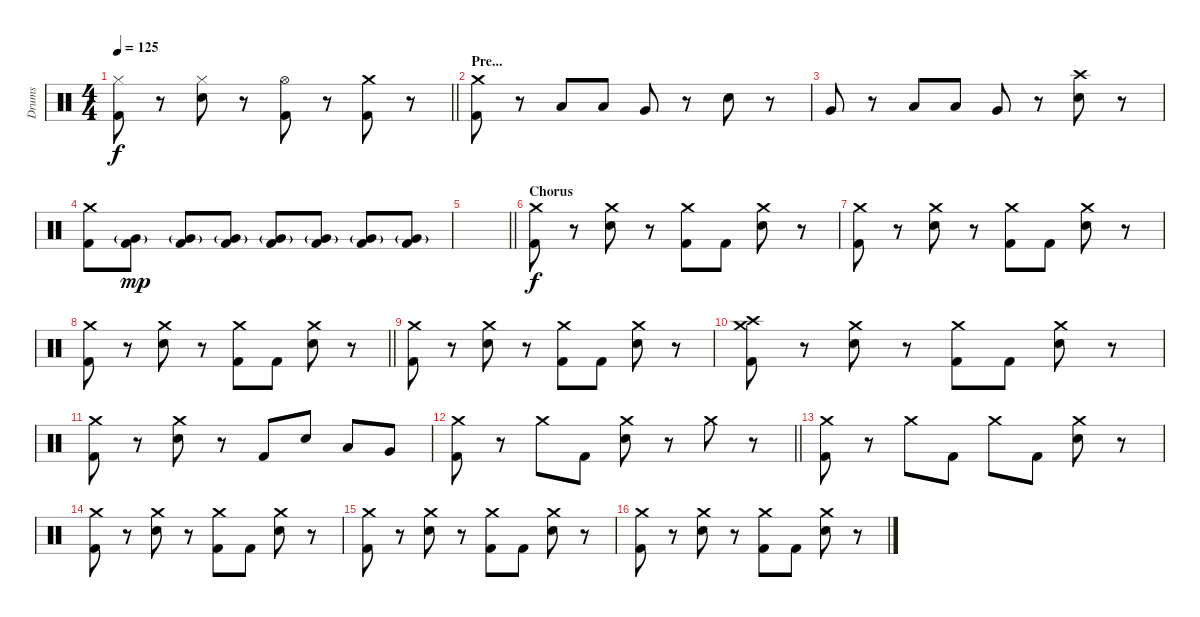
\track ("Drums" "Drums") {instrument percussion}
\staff {score}
\articulation defaults
\ts (4 4)
\tempo 125
\clef neutral
\barLineRight lightlight
\ks c
("Hi-Hat (closed)" "Kick (hit) 2").8{dy f} r.8 ("Hi-Hat (closed)" "Electric Snare (hit)").8 r.8 ("Hi-Hat (open)" "Kick (hit) 2").8 r.8 ("Crash medium (hit)" "Kick (hit) 2").8 r.8 |
\section ("" "Pre...")
("Crash medium (hit)" "Kick (hit) 2").8 r.8 "Low Tom (hit)".8 "Low Tom (hit)".8 "Very Low Tom (hit)".8 r.8 "Electric Snare (hit)".8 r.8 |
"Very Low Tom (hit)".8 r.8 "Low Tom (hit)".8 "Low Tom (hit)".8 "Very Low Tom (hit)".8 r.8 ("Crash high (hit)" "Electric Snare (hit)").8 r.8 |
("Crash medium (hit)" "Kick (hit) 2").8 ("Kick (hit) 2" "Very Low Tom (hit)"{g}).8{dy mp} ("Kick (hit) 2" "Very Low Tom (hit)"{g}).8 ("Kick (hit) 2" "Very Low Tom (hit)"{g}).8 ("Kick (hit) 2" "Very Low Tom (hit)"{g}).8 ("Kick (hit) 2" "Very Low Tom (hit)"{g}).8 ("Kick (hit) 2" "Very Low Tom (hit)"{g}).8 ("Kick (hit) 2" "Very Low Tom (hit)"{g}).8 |
\barLineRight lightlight
|
\section ("" "Chorus")
("Crash medium (hit)" "Kick (hit) 2").8{dy f} r.8 ("Crash medium (hit)" "Electric Snare (hit)").8 r.8 ("Crash medium (hit)" "Kick (hit) 2").8 "Kick (hit) 2".8 ("Crash medium (hit)" "Electric Snare (hit)").8 r.8 |
("Crash medium (hit)" "Kick (hit) 2").8 r.8 ("Crash medium (hit)" "Electric Snare (hit)").8 r.8 ("Crash medium (hit)" "Kick (hit) 2").8 "Kick (hit) 2".8 ("Crash medium (hit)" "Electric Snare (hit)").8 r.8 |
\barLineRight lightlight
("Crash medium (hit)" "Kick (hit) 2").8 r.8 ("Crash medium (hit)" "Electric Snare (hit)").8 r.8 ("Crash medium (hit)" "Kick (hit) 2").8 "Kick (hit) 2".8 ("Crash medium (hit)" "Electric Snare (hit)").8 r.8 |
("Crash medium (hit)" "Kick (hit) 2").8 r.8 ("Crash medium (hit)" "Electric Snare (hit)").8 r.8 ("Crash medium (hit)" "Kick (hit) 2").8 "Kick (hit) 2".8 ("Crash medium (hit)" "Electric Snare (hit)").8 r.8 |
("Crash high (hit)" "Crash medium (hit)" "Kick (hit) 2").8 r.8 ("Crash medium (hit)" "Electric Snare (hit)").8 r.8 ("Crash medium (hit)" "Kick (hit) 2").8 "Kick (hit) 2".8 ("Crash medium (hit)" "Electric Snare (hit)").8 r.8 |
("Crash medium (hit)" "Kick (hit) 2").8 r.8 ("Crash medium (hit)" "Electric Snare (hit)").8 r.8 "Kick (hit) 2".8 "Electric Snare (hit)".8 "Low Tom (hit)".8 "Very Low Tom (hit)".8 |
\barLineRight lightlight
("Crash medium (hit)" "Kick (hit) 2").8 r.8 "Crash medium (hit)".8 "Kick (hit) 2".8 ("Crash medium (hit)" "Electric Snare (hit)").8 r.8 "Crash medium (hit)".8 r.8 |
("Crash medium (hit)" "Kick (hit) 2").8 r.8 "Crash medium (hit)".8 "Kick (hit) 2".8 "Crash medium (hit)".8 "Kick (hit) 2".8 ("Crash medium (hit)" "Electric Snare (hit)").8 r.8 |
("Crash medium (hit)" "Kick (hit) 2").8 r.8 ("Crash medium (hit)" "Electric Snare (hit)").8 r.8 ("Crash medium (hit)" "Kick (hit) 2").8 "Kick (hit) 2".8 ("Crash medium (hit)" "Electric Snare (hit)").8 r.8 |
("Crash medium (hit)" "Kick (hit) 2").8 r.8 ("Crash medium (hit)" "Electric Snare (hit)").8 r.8 ("Crash medium (hit)" "Kick (hit) 2").8 "Kick (hit) 2".8 ("Crash medium (hit)" "Electric Snare (hit)").8 r.8 |
("Crash medium (hit)" "Kick (hit) 2").8 r.8 ("Crash medium (hit)" "Electric Snare (hit)").8 r.8 ("Crash medium (hit)" "Kick (hit) 2").8 "Kick (hit) 2".8 ("Crash medium (hit)" "Electric Snare (hit)").8 r.8
